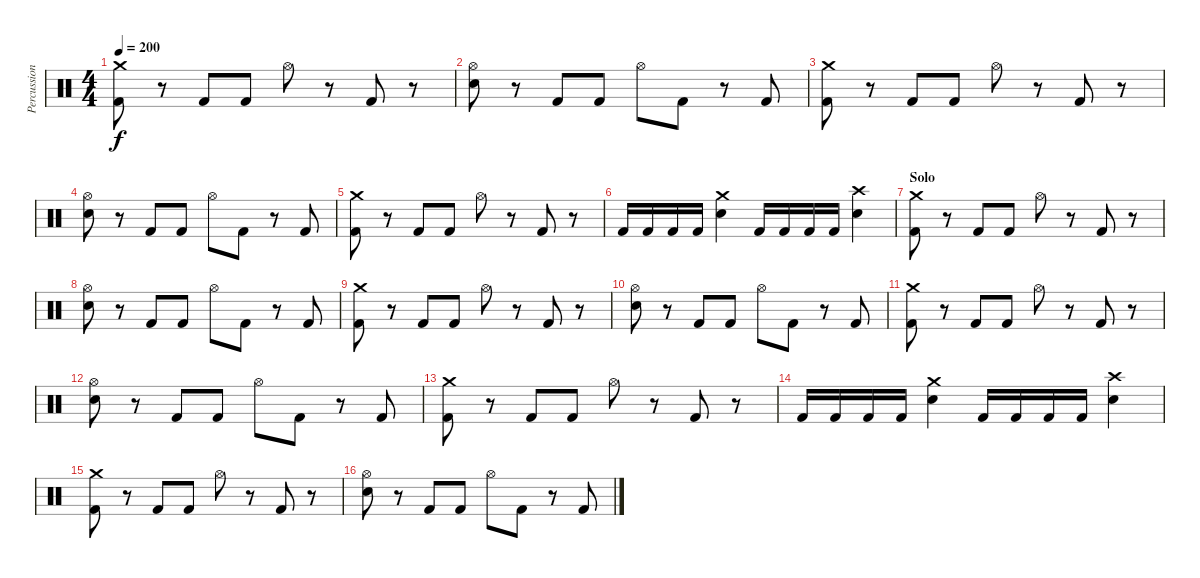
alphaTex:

\track ("Percussions" "Percussion") {instrument percussion}
\staff {score}
\articulation defaults
\ts (4 4)
\tempo 200
\clef neutral
\ks c
("Crash medium (hit)" "Kick (hit) 2").8{dy f} r.8 "Kick (hit) 2".8 "Kick (hit) 2".8 "Hi-Hat (open)".8 r.8 "Kick (hit) 2".8 r.8 |
("Hi-Hat (open)" "Electric Snare (hit)").8 r.8 "Kick (hit) 2".8 "Kick (hit) 2".8 "Hi-Hat (open)".8 "Kick (hit) 2".8 r.8 "Kick (hit) 2".8 |
("Crash medium (hit)" "Kick (hit) 2").8 r.8 "Kick (hit) 2".8 "Kick (hit) 2".8 "Hi-Hat (open)".8 r.8 "Kick (hit) 2".8 r.8 |
("Hi-Hat (open)" "Electric Snare (hit)").8 r.8 "Kick (hit) 2".8 "Kick (hit) 2".8 "Hi-Hat (open)".8 "Kick (hit) 2".8 r.8 "Kick (hit) 2".8 |
("Crash medium (hit)" "Kick (hit) 2").8 r.8 "Kick (hit) 2".8 "Kick (hit) 2".8 "Hi-Hat (open)".8 r.8 "Kick (hit) 2".8 r.8 |
"Kick (hit) 2".16 "Kick (hit) 2".16 "Kick (hit) 2".16 "Kick (hit) 2".16 ("Crash medium (hit)" "Electric Snare (hit)").4 "Kick (hit) 2".16 "Kick (hit) 2".16 "Kick (hit) 2".16 "Kick (hit) 2".16 ("Crash high (hit)" "Electric Snare (hit)").4 |
\section ("" "Solo")
("Crash medium (hit)" "Kick (hit) 2").8 r.8 "Kick (hit) 2".8 "Kick (hit) 2".8 "Hi-Hat (open)".8 r.8 "Kick (hit) 2".8 r.8 |
("Hi-Hat (open)" "Electric Snare (hit)").8 r.8 "Kick (hit) 2".8 "Kick (hit) 2".8 "Hi-Hat (open)".8 "Kick (hit) 2".8 r.8 "Kick (hit) 2".8 |
("Crash medium (hit)" "Kick (hit) 2").8 r.8 "Kick (hit) 2".8 "Kick (hit) 2".8 "Hi-Hat (open)".8 r.8 "Kick (hit) 2".8 r.8 |
("Hi-Hat (open)" "Electric Snare (hit)").8 r.8 "Kick (hit) 2".8 "Kick (hit) 2".8 "Hi-Hat (open)".8 "Kick (hit) 2".8 r.8 "Kick (hit) 2".8 |
("Crash medium (hit)" "Kick (hit) 2").8 r.8 "Kick (hit) 2".8 "Kick (hit) 2".8 "Hi-Hat (open)".8 r.8 "Kick (hit) 2".8 r.8 |
("Hi-Hat (open)" "Electric Snare (hit)").8 r.8 "Kick (hit) 2".8 "Kick (hit) 2".8 "Hi-Hat (open)".8 "Kick (hit) 2".8 r.8 "Kick (hit) 2".8 |
("Crash medium (hit)" "Kick (hit) 2").8 r.8 "Kick (hit) 2".8 "Kick (hit) 2".8 "Hi-Hat (open)".8 r.8 "Kick (hit) 2".8 r.8 |
"Kick (hit) 2".16 "Kick (hit) 2".16 "Kick (hit) 2".16 "Kick (hit) 2".16 ("Crash medium (hit)" "Electric Snare (hit)").4 "Kick (hit) 2".16 "Kick (hit) 2".16 "Kick (hit) 2".16 "Kick (hit) 2".16 ("Crash high (hit)" "Electric Snare (hit)").4 |
("Crash medium (hit)" "Kick (hit) 2").8 r.8 "Kick (hit) 2".8 "Kick (hit) 2".8 "Hi-Hat (open)".8 r.8 "Kick (hit) 2".8 r.8 |
("Hi-Hat (open)" "Electric Snare (hit)").8 r.8 "Kick (hit) 2".8 "Kick (hit) 2".8 "Hi-Hat (open)".8 "Kick (hit) 2".8 r.8 "Kick (hit) 2".8
